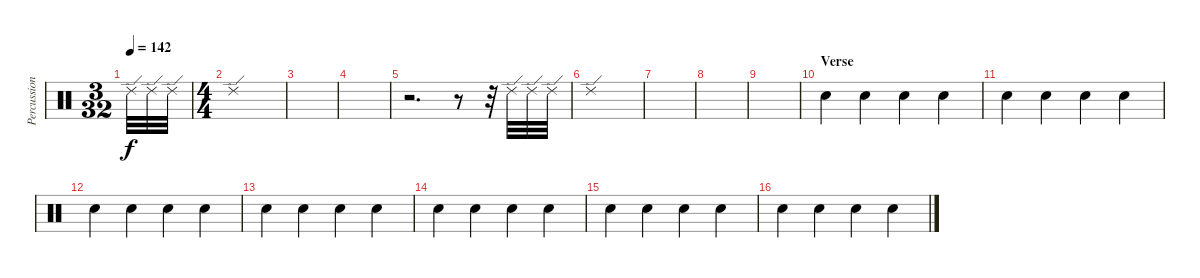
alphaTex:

\track ("Percussion" "Percussion") {instrument percussion}
\staff {score}
\articulation defaults
\ts (3 32)
\tempo 142
\clef neutral
\ks c "Ride (edge) 2".32{dy f} "Ride (edge) 2".32 "Ride (edge) 2".32
|
\ts (4 4)
"Ride (edge) 2".1 |
|
|
r.2{d} r.8 r.32 "Ride (edge) 2".32 "Ride (edge) 2".32 "Ride (edge) 2".32 |
"Ride (edge) 2".1 |
|
|
|
\section ("" "Verse")
"Snare (hit) 2".4 "Snare (hit) 2".4 "Snare (hit) 2".4 "Snare (hit) 2".4 |
"Snare (hit) 2".4 "Snare (hit) 2".4 "Snare (hit) 2".4 "Snare (hit) 2".4 |
"Snare (hit) 2".4 "Snare (hit) 2".4 "Snare (hit) 2".4 "Snare (hit) 2".4 |
"Snare (hit) 2".4 "Snare (hit) 2".4 "Snare (hit) 2".4 "Snare (hit) 2".4 |
"Snare (hit) 2".4 "Snare (hit) 2".4 "Snare (hit) 2".4 "Snare (hit) 2".4 |
"Snare (hit) 2".4 "Snare (hit) 2".4 "Snare (hit) 2".4 "Snare (hit) 2".4 |
"Snare (hit) 2".4 "Snare (hit) 2".4 "Snare (hit) 2".4 "Snare (hit) 2".4
